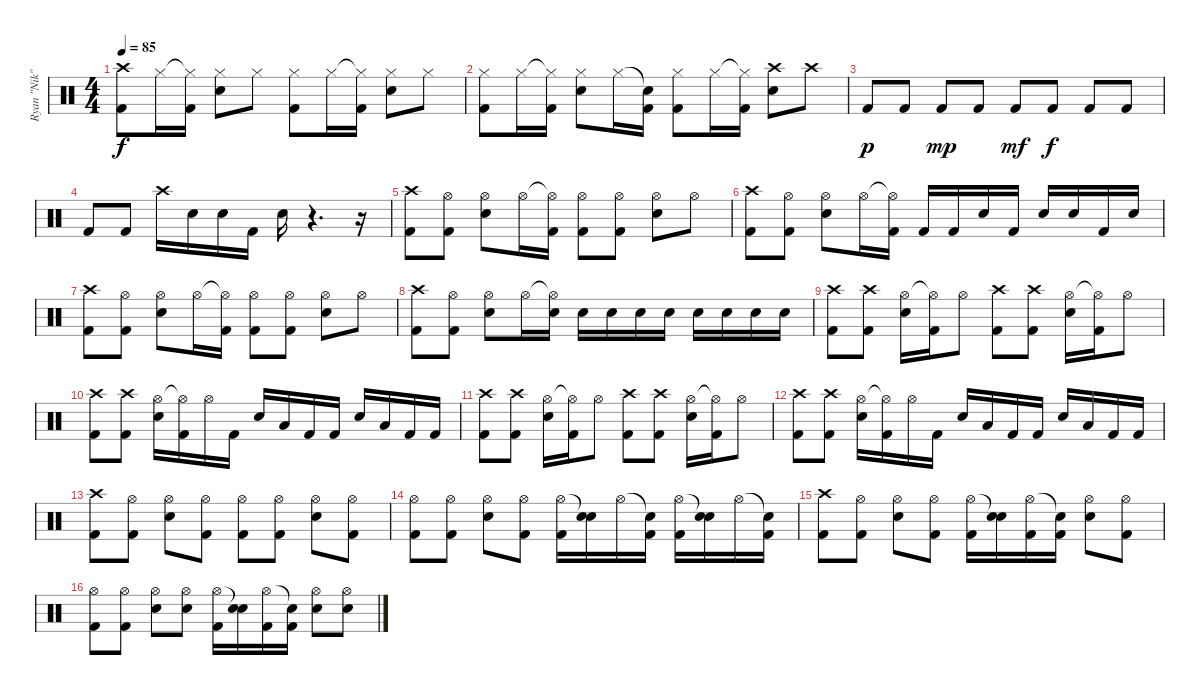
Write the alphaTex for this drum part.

\track ("Ryan \"Nik\" Vikedal (Drums)" "Ryan \"Nik\"") {instrument percussion}
\staff {score}
\articulation defaults
\ts (4 4)
\tempo 85
\clef neutral
\ks c
("Crash high (hit)" "Kick (hit) 2").8{dy f} "Hi-Hat (closed)".16 ("Hi-Hat (closed)"{t} "Kick (hit) 2").16 ("Hi-Hat (closed)" "Electric Snare (hit)").8 "Hi-Hat (closed)".8 ("Hi-Hat (closed)" "Kick (hit) 2").8 "Hi-Hat (closed)".16 ("Hi-Hat (closed)"{t} "Kick (hit) 2").16 ("Hi-Hat (closed)" "Electric Snare (hit)").8 "Hi-Hat (closed)".8 |
("Hi-Hat (closed)" "Kick (hit) 2").8 "Hi-Hat (closed)".16 ("Hi-Hat (closed)"{t} "Kick (hit) 2").16 ("Hi-Hat (closed)" "Electric Snare (hit)").8 "Hi-Hat (closed)".16 ("Snare (hit)"{t} "Kick (hit) 2").16 ("Hi-Hat (closed)" "Kick (hit) 2").8 "Hi-Hat (closed)".16 ("Hi-Hat (closed)"{t} "Kick (hit) 2").16 ("Crash high (hit)" "Electric Snare (hit)").8 "Crash high (hit)".8 |
"Kick (hit) 2".8{dy p} "Kick (hit) 2".8 "Kick (hit) 2".8{dy mp} "Kick (hit) 2".8 "Kick (hit) 2".8{dy mf} "Kick (hit) 2".8{dy f} "Kick (hit) 2".8 "Kick (hit) 2".8 |
"Kick (hit) 2".8 "Kick (hit) 2".8 "Crash high (hit)".16 "Electric Snare (hit)".16 "Electric Snare (hit)".16 "Kick (hit) 2".16 "Electric Snare (hit)".16 r.4{d} r.16 |
("Crash high (hit)" "Kick (hit) 2").8 ("Hi-Hat (open)" "Kick (hit) 2").8 ("Hi-Hat (open)" "Electric Snare (hit)").8 "Hi-Hat (open)".16 ("Hi-Hat (open)"{t} "Kick (hit) 2").16 ("Hi-Hat (open)" "Kick (hit) 2").8 ("Hi-Hat (open)" "Kick (hit) 2").8 ("Hi-Hat (open)" "Electric Snare (hit)").8 "Hi-Hat (open)".8 |
("Crash high (hit)" "Kick (hit) 2").8 ("Hi-Hat (open)" "Kick (hit) 2").8 ("Hi-Hat (open)" "Electric Snare (hit)").8 "Hi-Hat (open)".16 ("Hi-Hat (open)"{t} "Kick (hit) 2").16 "Kick (hit) 2".16 "Kick (hit) 2".16 "Electric Snare (hit)".16 "Kick (hit) 2".16 "Electric Snare (hit)".16 "Electric Snare (hit)".16 "Kick (hit) 2".16 "Electric Snare (hit)".16 |
("Crash high (hit)" "Kick (hit) 2").8 ("Hi-Hat (open)" "Kick (hit) 2").8 ("Hi-Hat (open)" "Electric Snare (hit)").8 "Hi-Hat (open)".16 ("Hi-Hat (open)"{t} "Kick (hit) 2").16 ("Hi-Hat (open)" "Kick (hit) 2").8 ("Hi-Hat (open)" "Kick (hit) 2").8 ("Hi-Hat (open)" "Electric Snare (hit)").8 "Hi-Hat (open)".8 |
("Crash high (hit)" "Kick (hit) 2").8 ("Hi-Hat (open)" "Kick (hit) 2").8 ("Hi-Hat (open)" "Electric Snare (hit)").8 "Hi-Hat (open)".16 ("Hi-Hat (open)"{t} "Electric Snare (hit)").16 "Electric Snare (hit)".16 "Electric Snare (hit)".16 "Electric Snare (hit)".16 "Electric Snare (hit)".16 "Electric Snare (hit)".16 "Electric Snare (hit)".16 "Electric Snare (hit)".16 "Electric Snare (hit)".16 |
("Crash high (hit)" "Kick (hit) 2").8 ("Crash high (hit)" "Kick (hit) 2").8 ("Hi-Hat (open)" "Electric Snare (hit)").16 ("Hi-Hat (open)"{t} "Kick (hit) 2").16 "Hi-Hat (open)".8 ("Crash high (hit)" "Kick (hit) 2").8 ("Crash high (hit)" "Kick (hit) 2").8 ("Hi-Hat (open)" "Electric Snare (hit)").16 ("Hi-Hat (open)"{t} "Kick (hit) 2").16 "Hi-Hat (open)".8 |
("Crash high (hit)" "Kick (hit) 2").8 ("Crash high (hit)" "Kick (hit) 2").8 ("Hi-Hat (open)" "Electric Snare (hit)").16 ("Hi-Hat (open)"{t} "Kick (hit) 2").16 "Hi-Hat (open)".16 "Kick (hit) 2".16 "Electric Snare (hit)".16 "Low Tom (hit)".16 "Kick (hit) 2".16 "Kick (hit) 2".16 "Electric Snare (hit)".16 "Low Tom (hit)".16 "Kick (hit) 2".16 "Kick (hit) 2".16 |
("Crash high (hit)" "Kick (hit) 2").8 ("Crash high (hit)" "Kick (hit) 2").8 ("Hi-Hat (open)" "Electric Snare (hit)").16 ("Hi-Hat (open)"{t} "Kick (hit) 2").16 "Hi-Hat (open)".8 ("Crash high (hit)" "Kick (hit) 2").8 ("Crash high (hit)" "Kick (hit) 2").8 ("Hi-Hat (open)" "Electric Snare (hit)").16 ("Hi-Hat (open)"{t} "Kick (hit) 2").16 "Hi-Hat (open)".8 |
("Crash high (hit)" "Kick (hit) 2").8 ("Crash high (hit)" "Kick (hit) 2").8 ("Hi-Hat (open)" "Electric Snare (hit)").16 ("Hi-Hat (open)"{t} "Kick (hit) 2").16 "Hi-Hat (open)".16 "Kick (hit) 2".16 "Electric Snare (hit)".16 "Low Tom (hit)".16 "Kick (hit) 2".16 "Kick (hit) 2".16 "Electric Snare (hit)".16 "Low Tom (hit)".16 "Kick (hit) 2".16 "Kick (hit) 2".16 |
("Crash high (hit)" "Kick (hit) 2").8 ("Hi-Hat (open)" "Kick (hit) 2").8 ("Hi-Hat (open)" "Electric Snare (hit)").8 ("Hi-Hat (open)" "Kick (hit) 2").8 ("Hi-Hat (open)" "Kick (hit) 2").8 ("Hi-Hat (open)" "Kick (hit) 2").8 ("Hi-Hat (open)" "Electric Snare (hit)").8 ("Hi-Hat (open)" "Kick (hit) 2").8 |
("Hi-Hat (open)" "Kick (hit) 2").8 ("Hi-Hat (open)" "Kick (hit) 2").8 ("Hi-Hat (open)" "Electric Snare (hit)").8 ("Hi-Hat (open)" "Kick (hit) 2").8 ("Hi-Hat (open)" "Kick (hit) 2").16 ("Snare (hit)"{t} "Electric Snare (hit)").16 "Hi-Hat (open)".16 ("Snare (hit)"{t} "Kick (hit) 2").16 ("Hi-Hat (open)" "Kick (hit) 2").16 ("Snare (hit)"{t} "Electric Snare (hit)").16 "Hi-Hat (open)".16 ("Snare (hit)"{t} "Kick (hit) 2").16 |
("Crash high (hit)" "Kick (hit) 2").8 ("Hi-Hat (open)" "Kick (hit) 2").8 ("Hi-Hat (open)" "Electric Snare (hit)").8 ("Hi-Hat (open)" "Kick (hit) 2").8 ("Hi-Hat (open)" "Kick (hit) 2").16 ("Snare (hit)"{t} "Electric Snare (hit)").16 ("Hi-Hat (open)" "Kick (hit) 2").16 ("Snare (hit)"{t} "Kick (hit) 2").16 ("Hi-Hat (open)" "Electric Snare (hit)").8 ("Hi-Hat (open)" "Kick (hit) 2").8 |
("Hi-Hat (open)" "Kick (hit) 2").8 ("Hi-Hat (open)" "Kick (hit) 2").8 ("Hi-Hat (open)" "Electric Snare (hit)").8 ("Hi-Hat (open)" "Electric Snare (hit)").8 ("Hi-Hat (open)" "Kick (hit) 2").16 ("Snare (hit)"{t} "Electric Snare (hit)").16 ("Hi-Hat (open)" "Kick (hit) 2").16 ("Snare (hit)"{t} "Kick (hit) 2").16 ("Hi-Hat (open)" "Electric Snare (hit)").8 ("Hi-Hat (open)" "Electric Snare (hit)").8
